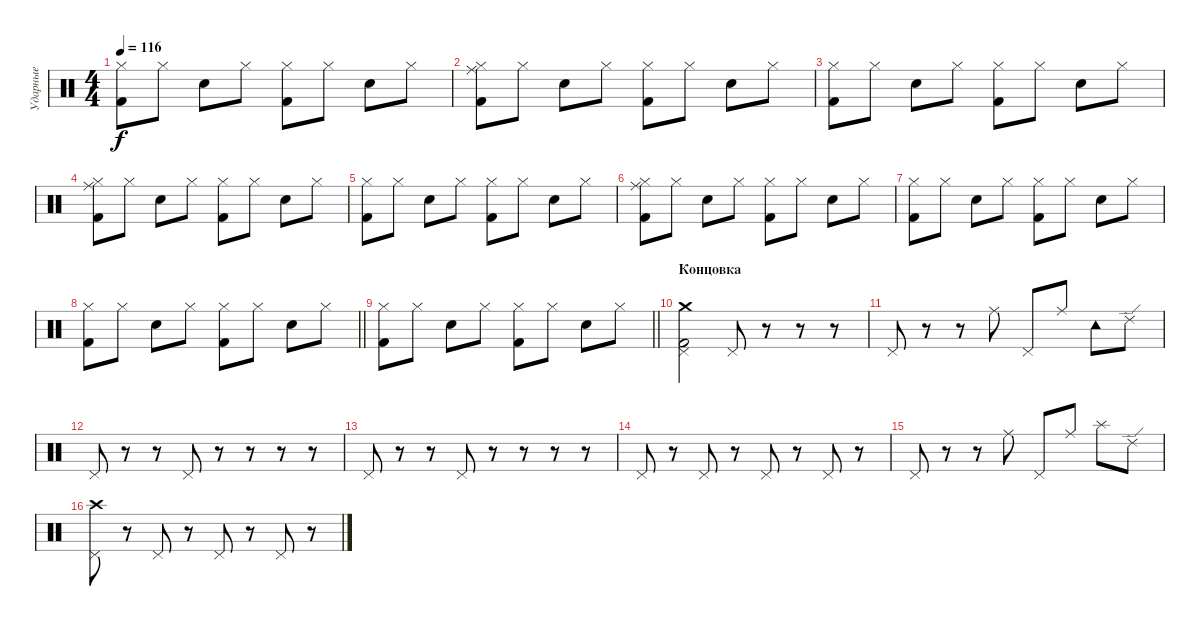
\track ("Ударные" "Ударные") {instrument percussion}
\staff {score}
\articulation defaults
\ts (4 4)
\tempo 116
\clef neutral
\ks c
("Hi-Hat (closed)" "Kick (hit) 2").8{dy f} "Hi-Hat (closed)".8 "Snare (hit) 2".8 "Hi-Hat (closed)".8 ("Hi-Hat (closed)" "Kick (hit) 2").8 "Hi-Hat (closed)".8 "Snare (hit) 2".8 "Hi-Hat (closed)".8 |
("Hi-Hat (closed)" "Kick (hit) 2" "Ride (middle)").8 "Hi-Hat (closed)".8 "Snare (hit) 2".8 "Hi-Hat (closed)".8 ("Hi-Hat (closed)" "Kick (hit) 2").8 "Hi-Hat (closed)".8 "Snare (hit) 2".8 "Hi-Hat (closed)".8 |
("Hi-Hat (closed)" "Kick (hit) 2").8 "Hi-Hat (closed)".8 "Snare (hit) 2".8 "Hi-Hat (closed)".8 ("Hi-Hat (closed)" "Kick (hit) 2").8 "Hi-Hat (closed)".8 "Snare (hit) 2".8 "Hi-Hat (closed)".8 |
("Hi-Hat (closed)" "Kick (hit) 2" "Ride (middle)").8 "Hi-Hat (closed)".8 "Snare (hit) 2".8 "Hi-Hat (closed)".8 ("Hi-Hat (closed)" "Kick (hit) 2").8 "Hi-Hat (closed)".8 "Snare (hit) 2".8 "Hi-Hat (closed)".8 |
("Hi-Hat (closed)" "Kick (hit) 2").8 "Hi-Hat (closed)".8 "Snare (hit) 2".8 "Hi-Hat (closed)".8 ("Hi-Hat (closed)" "Kick (hit) 2").8 "Hi-Hat (closed)".8 "Snare (hit) 2".8 "Hi-Hat (closed)".8 |
("Hi-Hat (closed)" "Kick (hit) 2" "Ride (middle)").8 "Hi-Hat (closed)".8 "Snare (hit) 2".8 "Hi-Hat (closed)".8 ("Hi-Hat (closed)" "Kick (hit) 2").8 "Hi-Hat (closed)".8 "Snare (hit) 2".8 "Hi-Hat (closed)".8 |
("Hi-Hat (closed)" "Kick (hit) 2").8 "Hi-Hat (closed)".8 "Snare (hit) 2".8 "Hi-Hat (closed)".8 ("Hi-Hat (closed)" "Kick (hit) 2").8 "Hi-Hat (closed)".8 "Snare (hit) 2".8 "Hi-Hat (closed)".8 |
\barLineRight lightlight
("Hi-Hat (closed)" "Kick (hit) 2").8 "Hi-Hat (closed)".8 "Snare (hit) 2".8 "Hi-Hat (closed)".8 ("Hi-Hat (closed)" "Kick (hit) 2").8 "Hi-Hat (closed)".8 "Snare (hit) 2".8 "Hi-Hat (closed)".8 |
\barLineRight lightlight
("Hi-Hat (closed)" "Kick (hit) 2").8 "Hi-Hat (closed)".8 "Snare (hit) 2".8 "Hi-Hat (closed)".8 ("Hi-Hat (closed)" "Kick (hit) 2").8 "Hi-Hat (closed)".8 "Snare (hit) 2".8 "Hi-Hat (closed)".8 |
\section ("" "Концовка")
("Pedal Hi-Hat (hit)" "Kick (hit) 2" "Crash medium (hit)").2 "Pedal Hi-Hat (hit)".8 r.8 r.8 r.8 |
"Pedal Hi-Hat (hit)".8 r.8 r.8 "Ride (middle)".8 "Pedal Hi-Hat (hit)".8 "Ride (middle)".8 "Tambourine (hit)".8 "Ride (edge) 2".8 |
"Pedal Hi-Hat (hit)".8 r.8 r.8 "Pedal Hi-Hat (hit)".8 r.8 r.8 r.8 r.8 |
"Pedal Hi-Hat (hit)".8 r.8 r.8 "Pedal Hi-Hat (hit)".8 r.8 r.8 r.8 r.8 |
"Pedal Hi-Hat (hit)".8 r.8 "Pedal Hi-Hat (hit)".8 r.8 "Pedal Hi-Hat (hit)".8 r.8 "Pedal Hi-Hat (hit)".8 r.8 |
"Pedal Hi-Hat (hit)".8 r.8 r.8 "Ride (middle)".8 "Pedal Hi-Hat (hit)".8 "Ride (middle)".8 "Splash (hit)".8 "Ride (edge) 2".8 |
("Pedal Hi-Hat (hit)" "Crash high (hit)").8 r.8 "Pedal Hi-Hat (hit)".8 r.8 "Pedal Hi-Hat (hit)".8 r.8 "Pedal Hi-Hat (hit)".8{volume 7} r.8
